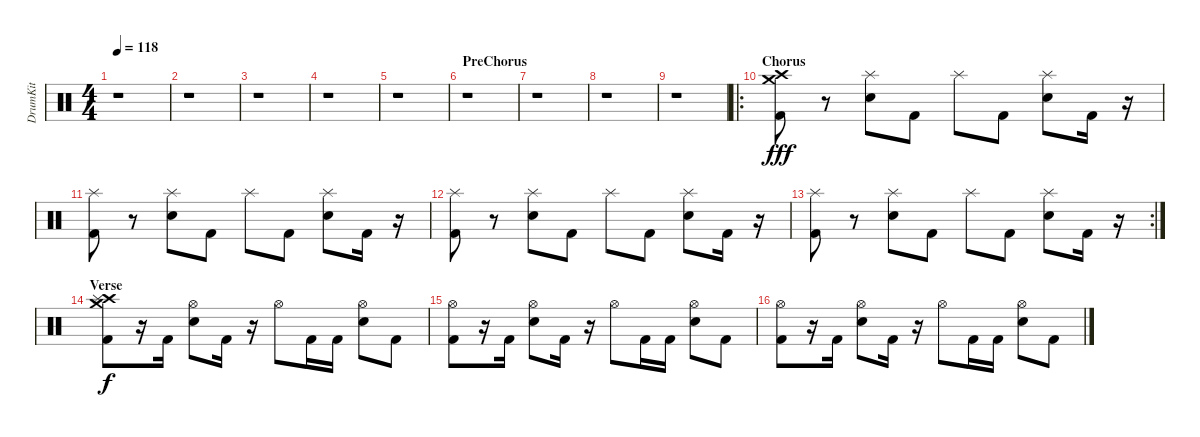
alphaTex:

\track ("DrumKit" "DrumKit") {instrument percussion}
\staff {score}
\articulation defaults
\ts (4 4)
\tempo 118
\clef neutral
\ks c
r.1{dy fff} |
r.1 |
r.1 |
r.1 |
r.1 |
\section ("" "PreChorus")
r.1 |
r.1 |
r.1 |
r.1 |
\ro
\section ("" "Chorus")
("Crash high (hit)" "Crash medium (hit)" "Kick (hit) 2").8 r.8 ("Splash (hit)" "Snare (hit) 2").8 "Kick (hit) 2".8 "Splash (hit)".8 "Kick (hit) 2".8 ("Splash (hit)" "Snare (hit) 2").8 "Kick (hit) 2".16 r.16 |
("Splash (hit)" "Kick (hit) 2").8 r.8 ("Splash (hit)" "Snare (hit) 2").8 "Kick (hit) 2".8 "Splash (hit)".8 "Kick (hit) 2".8 ("Splash (hit)" "Snare (hit) 2").8 "Kick (hit) 2".16 r.16 |
("Splash (hit)" "Kick (hit) 2").8 r.8 ("Splash (hit)" "Snare (hit) 2").8 "Kick (hit) 2".8 "Splash (hit)".8 "Kick (hit) 2".8 ("Splash (hit)" "Snare (hit) 2").8 "Kick (hit) 2".16 r.16 |
\rc 2
("Splash (hit)" "Kick (hit) 2").8 r.8 ("Splash (hit)" "Snare (hit) 2").8 "Kick (hit) 2".8 "Splash (hit)".8 "Kick (hit) 2".8 ("Splash (hit)" "Snare (hit) 2").8 "Kick (hit) 2".16 r.16 |
\section ("" "Verse")
("Crash high (hit)" "Crash medium (hit)" "Splash (hit)" "Kick (hit) 2").8{dy f} r.16 "Kick (hit) 2".16 ("Hi-Hat (open)" "Snare (hit) 2").8 "Kick (hit) 2".16 r.16 "Hi-Hat (open)".8 "Kick (hit) 2".16 "Kick (hit) 2".16 ("Hi-Hat (open)" "Snare (hit) 2").8 "Kick (hit) 2".8 |
("Hi-Hat (open)" "Kick (hit) 2").8 r.16 "Kick (hit) 2".16 ("Hi-Hat (open)" "Snare (hit) 2").8 "Kick (hit) 2".16 r.16 "Hi-Hat (open)".8 "Kick (hit) 2".16 "Kick (hit) 2".16 ("Hi-Hat (open)" "Snare (hit) 2").8 "Kick (hit) 2".8 |
("Hi-Hat (open)" "Kick (hit) 2").8 r.16 "Kick (hit) 2".16 ("Hi-Hat (open)" "Snare (hit) 2").8 "Kick (hit) 2".16 r.16 "Hi-Hat (open)".8 "Kick (hit) 2".16 "Kick (hit) 2".16 ("Hi-Hat (open)" "Snare (hit) 2").8 "Kick (hit) 2".8
